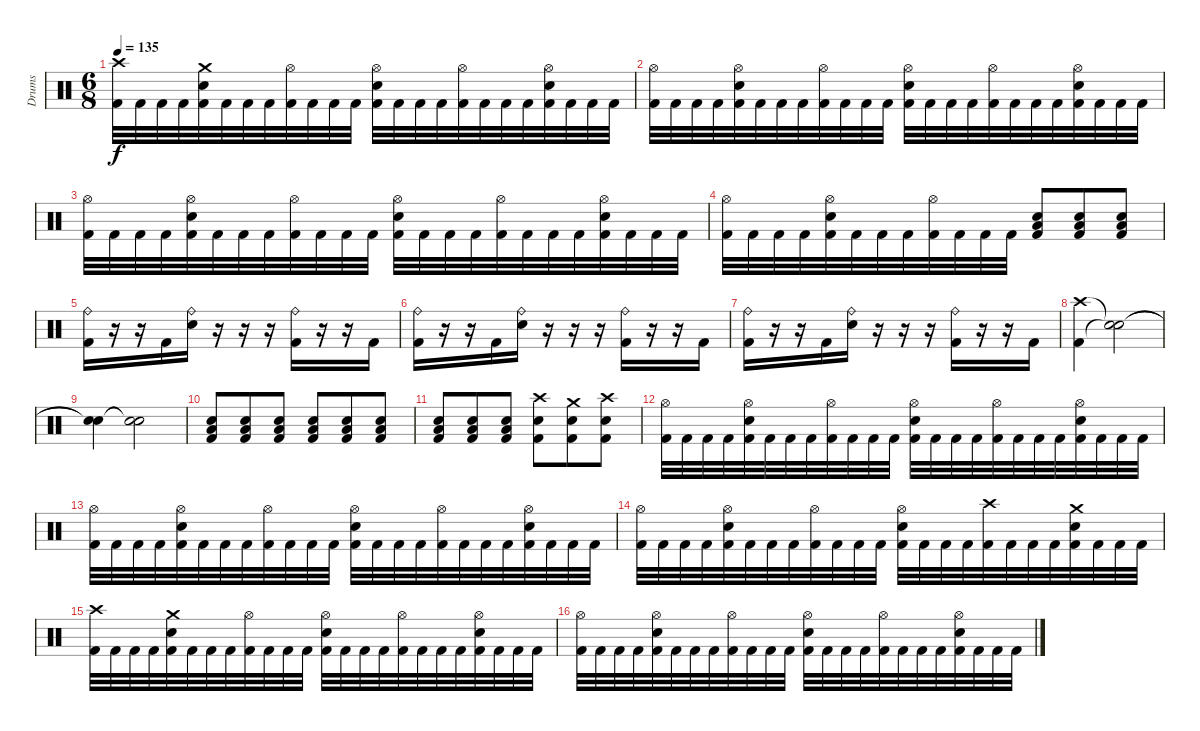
\track ("Drums" "Drums") {instrument percussion}
\staff {score}
\articulation defaults
\ts (6 8)
\tempo 135
\clef neutral
\ks c
("Crash high (hit)" "Kick (hit) 2").32{dy f} "Kick (hit) 2".32 "Kick (hit) 2".32 "Kick (hit) 2".32 ("Crash medium (hit)" "Electric Snare (hit)" "Kick (hit) 2").32 "Kick (hit) 2".32 "Kick (hit) 2".32 "Kick (hit) 2".32 ("Hi-Hat (open)" "Kick (hit) 2").32 "Kick (hit) 2".32 "Kick (hit) 2".32 "Kick (hit) 2".32 ("Hi-Hat (open)" "Electric Snare (hit)" "Kick (hit) 2").32 "Kick (hit) 2".32 "Kick (hit) 2".32 "Kick (hit) 2".32 ("Hi-Hat (open)" "Kick (hit) 2").32 "Kick (hit) 2".32 "Kick (hit) 2".32 "Kick (hit) 2".32 ("Hi-Hat (open)" "Electric Snare (hit)" "Kick (hit) 2").32 "Kick (hit) 2".32 "Kick (hit) 2".32 "Kick (hit) 2".32 |
("Hi-Hat (open)" "Kick (hit) 2").32 "Kick (hit) 2".32 "Kick (hit) 2".32 "Kick (hit) 2".32 ("Hi-Hat (open)" "Electric Snare (hit)" "Kick (hit) 2").32 "Kick (hit) 2".32 "Kick (hit) 2".32 "Kick (hit) 2".32 ("Hi-Hat (open)" "Kick (hit) 2").32 "Kick (hit) 2".32 "Kick (hit) 2".32 "Kick (hit) 2".32 ("Hi-Hat (open)" "Electric Snare (hit)" "Kick (hit) 2").32 "Kick (hit) 2".32 "Kick (hit) 2".32 "Kick (hit) 2".32 ("Hi-Hat (open)" "Kick (hit) 2").32 "Kick (hit) 2".32 "Kick (hit) 2".32 "Kick (hit) 2".32 ("Hi-Hat (open)" "Electric Snare (hit)" "Kick (hit) 2").32 "Kick (hit) 2".32 "Kick (hit) 2".32 "Kick (hit) 2".32 |
("Hi-Hat (open)" "Kick (hit) 2").32 "Kick (hit) 2".32 "Kick (hit) 2".32 "Kick (hit) 2".32 ("Hi-Hat (open)" "Electric Snare (hit)" "Kick (hit) 2").32 "Kick (hit) 2".32 "Kick (hit) 2".32 "Kick (hit) 2".32 ("Hi-Hat (open)" "Kick (hit) 2").32 "Kick (hit) 2".32 "Kick (hit) 2".32 "Kick (hit) 2".32 ("Hi-Hat (open)" "Electric Snare (hit)" "Kick (hit) 2").32 "Kick (hit) 2".32 "Kick (hit) 2".32 "Kick (hit) 2".32 ("Hi-Hat (open)" "Kick (hit) 2").32 "Kick (hit) 2".32 "Kick (hit) 2".32 "Kick (hit) 2".32 ("Hi-Hat (open)" "Electric Snare (hit)" "Kick (hit) 2").32 "Kick (hit) 2".32 "Kick (hit) 2".32 "Kick (hit) 2".32 |
("Hi-Hat (open)" "Kick (hit) 2").32 "Kick (hit) 2".32 "Kick (hit) 2".32 "Kick (hit) 2".32 ("Hi-Hat (open)" "Electric Snare (hit)" "Kick (hit) 2").32 "Kick (hit) 2".32 "Kick (hit) 2".32 "Kick (hit) 2".32 ("Hi-Hat (open)" "Kick (hit) 2").32 "Kick (hit) 2".32 "Kick (hit) 2".32 "Kick (hit) 2".32 ("Electric Snare (hit)" "Low Floor Tom (hit)" "Kick (hit) 2").8 ("Electric Snare (hit)" "Low Floor Tom (hit)" "Kick (hit) 2").8 ("Electric Snare (hit)" "Low Floor Tom (hit)" "Kick (hit) 2").8 |
("Kick (hit) 2" "Ride (bell)").16 r.16 r.16 "Kick (hit) 2".16 ("Electric Snare (hit)" "Ride (bell)").16 r.16 r.16 r.16 ("Kick (hit) 2" "Ride (bell)").16 r.16 r.16 "Kick (hit) 2".16 |
("Kick (hit) 2" "Ride (bell)").16 r.16 r.16 "Kick (hit) 2".16 ("Electric Snare (hit)" "Ride (bell)").16 r.16 r.16 r.16 ("Kick (hit) 2" "Ride (bell)").16 r.16 r.16 "Kick (hit) 2".16 |
("Kick (hit) 2" "Ride (bell)").16 r.16 r.16 "Kick (hit) 2".16 ("Electric Snare (hit)" "Ride (bell)").16 r.16 r.16 r.16 ("Kick (hit) 2" "Ride (bell)").16 r.16 r.16 "Kick (hit) 2".16 |
("Crash high (hit)" "Kick (hit) 2").4 ("Snare (hit)"{t} "Snare (hit)"{t}).2 |
("Snare (hit)"{t} "Snare (hit)"{t}).4 ("Snare (hit)"{t} "Snare (hit)"{t}).2 |
("Low Floor Tom (hit)" "Electric Snare (hit)" "Kick (hit) 2").8{volume 2} ("Low Floor Tom (hit)" "Electric Snare (hit)" "Kick (hit) 2").8{volume 4} ("Low Floor Tom (hit)" "Electric Snare (hit)" "Kick (hit) 2").8{volume 6} ("Low Floor Tom (hit)" "Electric Snare (hit)" "Kick (hit) 2").8{volume 8} ("Low Floor Tom (hit)" "Electric Snare (hit)" "Kick (hit) 2").8{volume 10} ("Low Floor Tom (hit)" "Electric Snare (hit)" "Kick (hit) 2").8{volume 12} |
("Low Floor Tom (hit)" "Electric Snare (hit)" "Kick (hit) 2").8{volume 14} ("Low Floor Tom (hit)" "Electric Snare (hit)" "Kick (hit) 2").8{volume 16} ("Low Floor Tom (hit)" "Electric Snare (hit)" "Kick (hit) 2").8 ("Crash high (hit)" "Electric Snare (hit)" "Kick (hit) 2").8 ("Crash medium (hit)" "Electric Snare (hit)" "Kick (hit) 2").8 ("Crash high (hit)" "Electric Snare (hit)" "Kick (hit) 2").8 |
("Hi-Hat (open)" "Kick (hit) 2").32 "Kick (hit) 2".32 "Kick (hit) 2".32 "Kick (hit) 2".32 ("Hi-Hat (open)" "Electric Snare (hit)" "Kick (hit) 2").32 "Kick (hit) 2".32 "Kick (hit) 2".32 "Kick (hit) 2".32 ("Hi-Hat (open)" "Kick (hit) 2").32 "Kick (hit) 2".32 "Kick (hit) 2".32 "Kick (hit) 2".32 ("Hi-Hat (open)" "Electric Snare (hit)" "Kick (hit) 2").32 "Kick (hit) 2".32 "Kick (hit) 2".32 "Kick (hit) 2".32 ("Hi-Hat (open)" "Kick (hit) 2").32 "Kick (hit) 2".32 "Kick (hit) 2".32 "Kick (hit) 2".32 ("Hi-Hat (open)" "Electric Snare (hit)" "Kick (hit) 2").32 "Kick (hit) 2".32 "Kick (hit) 2".32 "Kick (hit) 2".32 |
("Hi-Hat (open)" "Kick (hit) 2").32 "Kick (hit) 2".32 "Kick (hit) 2".32 "Kick (hit) 2".32 ("Hi-Hat (open)" "Electric Snare (hit)" "Kick (hit) 2").32 "Kick (hit) 2".32 "Kick (hit) 2".32 "Kick (hit) 2".32 ("Hi-Hat (open)" "Kick (hit) 2").32 "Kick (hit) 2".32 "Kick (hit) 2".32 "Kick (hit) 2".32 ("Hi-Hat (open)" "Electric Snare (hit)" "Kick (hit) 2").32 "Kick (hit) 2".32 "Kick (hit) 2".32 "Kick (hit) 2".32 ("Hi-Hat (open)" "Kick (hit) 2").32 "Kick (hit) 2".32 "Kick (hit) 2".32 "Kick (hit) 2".32 ("Hi-Hat (open)" "Electric Snare (hit)" "Kick (hit) 2").32 "Kick (hit) 2".32 "Kick (hit) 2".32 "Kick (hit) 2".32 |
("Hi-Hat (open)" "Kick (hit) 2").32 "Kick (hit) 2".32 "Kick (hit) 2".32 "Kick (hit) 2".32 ("Hi-Hat (open)" "Electric Snare (hit)" "Kick (hit) 2").32 "Kick (hit) 2".32 "Kick (hit) 2".32 "Kick (hit) 2".32 ("Hi-Hat (open)" "Kick (hit) 2").32 "Kick (hit) 2".32 "Kick (hit) 2".32 "Kick (hit) 2".32 ("Hi-Hat (open)" "Electric Snare (hit)" "Kick (hit) 2").32 "Kick (hit) 2".32 "Kick (hit) 2".32 "Kick (hit) 2".32 ("Crash high (hit)" "Kick (hit) 2").32 "Kick (hit) 2".32 "Kick (hit) 2".32 "Kick (hit) 2".32 ("Crash medium (hit)" "Electric Snare (hit)" "Kick (hit) 2").32 "Kick (hit) 2".32 "Kick (hit) 2".32 "Kick (hit) 2".32 |
("Crash high (hit)" "Kick (hit) 2").32 "Kick (hit) 2".32 "Kick (hit) 2".32 "Kick (hit) 2".32 ("Crash medium (hit)" "Electric Snare (hit)" "Kick (hit) 2").32 "Kick (hit) 2".32 "Kick (hit) 2".32 "Kick (hit) 2".32 ("Hi-Hat (open)" "Kick (hit) 2").32 "Kick (hit) 2".32 "Kick (hit) 2".32 "Kick (hit) 2".32 ("Hi-Hat (open)" "Electric Snare (hit)" "Kick (hit) 2").32 "Kick (hit) 2".32 "Kick (hit) 2".32 "Kick (hit) 2".32 ("Hi-Hat (open)" "Kick (hit) 2").32 "Kick (hit) 2".32 "Kick (hit) 2".32 "Kick (hit) 2".32 ("Hi-Hat (open)" "Electric Snare (hit)" "Kick (hit) 2").32 "Kick (hit) 2".32 "Kick (hit) 2".32 "Kick (hit) 2".32 |
("Hi-Hat (open)" "Kick (hit) 2").32 "Kick (hit) 2".32 "Kick (hit) 2".32 "Kick (hit) 2".32 ("Hi-Hat (open)" "Electric Snare (hit)" "Kick (hit) 2").32 "Kick (hit) 2".32 "Kick (hit) 2".32 "Kick (hit) 2".32 ("Hi-Hat (open)" "Kick (hit) 2").32 "Kick (hit) 2".32 "Kick (hit) 2".32 "Kick (hit) 2".32 ("Hi-Hat (open)" "Electric Snare (hit)" "Kick (hit) 2").32 "Kick (hit) 2".32 "Kick (hit) 2".32 "Kick (hit) 2".32 ("Hi-Hat (open)" "Kick (hit) 2").32 "Kick (hit) 2".32 "Kick (hit) 2".32 "Kick (hit) 2".32 ("Hi-Hat (open)" "Electric Snare (hit)" "Kick (hit) 2").32 "Kick (hit) 2".32 "Kick (hit) 2".32 "Kick (hit) 2".32
